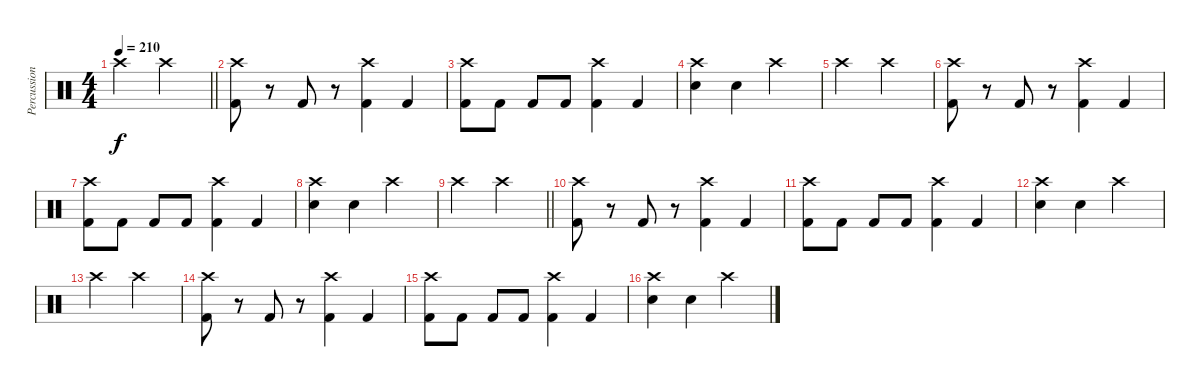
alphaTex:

\track ("Percussion" "Percussion") {instrument percussion}
\staff {score}
\articulation defaults
\ts (4 4)
\tempo 210
\clef neutral
\barLineRight lightlight
\ks c "Crash high (hit)".2{dy f} "Crash high (hit)".2
|
("Crash high (hit)" "Kick (hit) 2").8 r.8 "Kick (hit) 2".8 r.8 ("Crash high (hit)" "Kick (hit) 2").4 "Kick (hit) 2".4 |
("Crash high (hit)" "Kick (hit) 2").8 "Kick (hit) 2".8 "Kick (hit) 2".8 "Kick (hit) 2".8 ("Crash high (hit)" "Kick (hit) 2").4 "Kick (hit) 2".4 |
("Crash high (hit)" "Electric Snare (hit)").4 "Electric Snare (hit)".4 "Crash high (hit)".2 |
"Crash high (hit)".2 "Crash high (hit)".2 |
("Crash high (hit)" "Kick (hit) 2").8 r.8 "Kick (hit) 2".8 r.8 ("Crash high (hit)" "Kick (hit) 2").4 "Kick (hit) 2".4 |
("Crash high (hit)" "Kick (hit) 2").8 "Kick (hit) 2".8 "Kick (hit) 2".8 "Kick (hit) 2".8 ("Crash high (hit)" "Kick (hit) 2").4 "Kick (hit) 2".4 |
("Crash high (hit)" "Electric Snare (hit)").4 "Electric Snare (hit)".4 "Crash high (hit)".2 |
\barLineRight lightlight "Crash high (hit)".2 "Crash high (hit)".2
|
("Crash high (hit)" "Kick (hit) 2").8 r.8 "Kick (hit) 2".8 r.8 ("Crash high (hit)" "Kick (hit) 2").4 "Kick (hit) 2".4 |
("Crash high (hit)" "Kick (hit) 2").8 "Kick (hit) 2".8 "Kick (hit) 2".8 "Kick (hit) 2".8 ("Crash high (hit)" "Kick (hit) 2").4 "Kick (hit) 2".4 |
("Crash high (hit)" "Electric Snare (hit)").4 "Electric Snare (hit)".4 "Crash high (hit)".2 |
"Crash high (hit)".2 "Crash high (hit)".2 |
("Crash high (hit)" "Kick (hit) 2").8 r.8 "Kick (hit) 2".8 r.8 ("Crash high (hit)" "Kick (hit) 2").4 "Kick (hit) 2".4 |
("Crash high (hit)" "Kick (hit) 2").8 "Kick (hit) 2".8 "Kick (hit) 2".8 "Kick (hit) 2".8 ("Crash high (hit)" "Kick (hit) 2").4 "Kick (hit) 2".4 |
("Crash high (hit)" "Electric Snare (hit)").4 "Electric Snare (hit)".4 "Crash high (hit)".2
